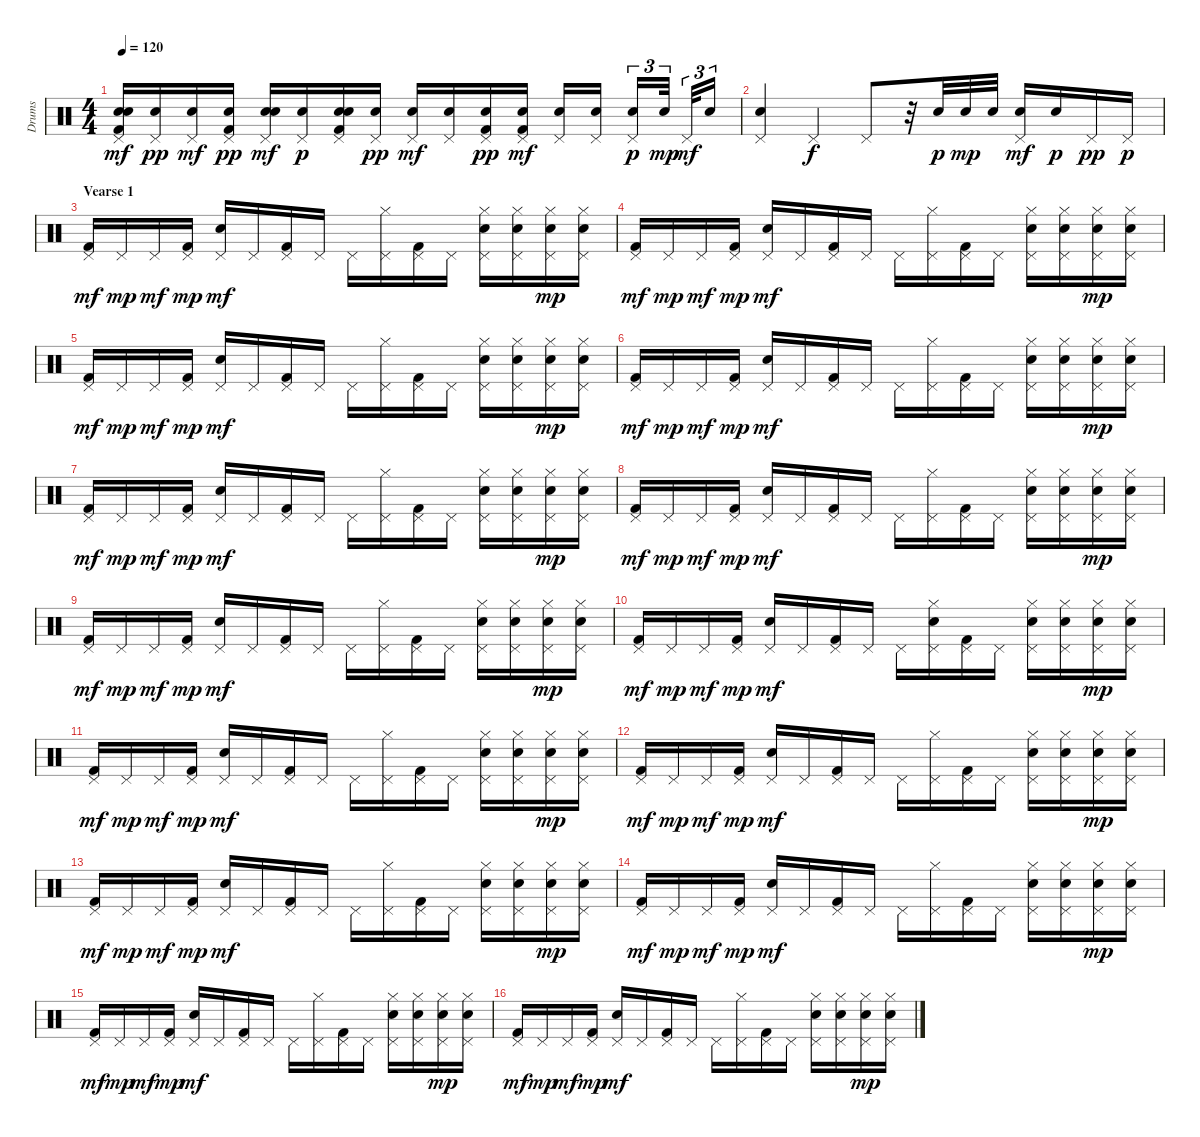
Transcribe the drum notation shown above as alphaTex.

\track ("Drums" "Drums") {instrument percussion}
\staff {score}
\articulation defaults
\ts (4 4)
\tempo 120
\clef neutral
\ks c
("Electric Snare (hit)" "Pedal Hi-Hat (hit)" "Kick (hit) 2" "Electric Snare (hit)").16{dy mf} ("Pedal Hi-Hat (hit)" "Electric Snare (hit)").16{dy pp} ("Electric Snare (hit)" "Pedal Hi-Hat (hit)").16{dy mf} ("Pedal Hi-Hat (hit)" "Kick (hit) 2" "Electric Snare (hit)").16{dy pp} ("Pedal Hi-Hat (hit)" "Electric Snare (hit)" "Electric Snare (hit)").16{dy mf} ("Pedal Hi-Hat (hit)" "Electric Snare (hit)").16{dy p} ("Electric Snare (hit)" "Pedal Hi-Hat (hit)" "Kick (hit) 2" "Electric Snare (hit)").16 ("Pedal Hi-Hat (hit)" "Electric Snare (hit)").16{dy pp} ("Electric Snare (hit)" "Pedal Hi-Hat (hit)").16{dy mf} ("Electric Snare (hit)" "Pedal Hi-Hat (hit)").16 ("Pedal Hi-Hat (hit)" "Electric Snare (hit)" "Kick (hit) 2").16{dy pp} ("Electric Snare (hit)" "Kick (hit) 2" "Pedal Hi-Hat (hit)").16{dy mf} ("Electric Snare (hit)" "Pedal Hi-Hat (hit)").16 ("Electric Snare (hit)" "Pedal Hi-Hat (hit)").16 ("Pedal Hi-Hat (hit)" "Electric Snare (hit)").16{tu (3 2) dy p} "Electric Snare (hit)".32{tu (3 2) dy mp} "Pedal Hi-Hat (hit)".32{tu (3 2) dy mf} "Electric Snare (hit)".16{tu (3 2)} |
("Electric Snare (hit)" "Pedal Hi-Hat (hit)").4 "Pedal Hi-Hat (hit)".4{dy f} "Pedal Hi-Hat (hit)".8 r.32 "Electric Snare (hit)".32{dy p} "Electric Snare (hit)".32{dy mp} "Electric Snare (hit)".32 ("Electric Snare (hit)" "Pedal Hi-Hat (hit)").16{dy mf} "Electric Snare (hit)".16{dy p} "Pedal Hi-Hat (hit)".16{dy pp} "Pedal Hi-Hat (hit)".16{dy p} |
\section ("" "Vearse 1")
("Pedal Hi-Hat (hit)" "Kick (hit) 2").16{dy mf} "Pedal Hi-Hat (hit)".16{dy mp} "Pedal Hi-Hat (hit)".16{dy mf} ("Pedal Hi-Hat (hit)" "Kick (hit) 2").16{dy mp} ("Pedal Hi-Hat (hit)" "Electric Snare (hit)").16{dy mf} "Pedal Hi-Hat (hit)".16 ("Pedal Hi-Hat (hit)" "Kick (hit) 2").16 "Pedal Hi-Hat (hit)".16 "Pedal Hi-Hat (hit)".16 ("Pedal Hi-Hat (hit)" "Hi-Hat (closed)").16 ("Pedal Hi-Hat (hit)" "Kick (hit) 2").16 "Pedal Hi-Hat (hit)".16 ("Pedal Hi-Hat (hit)" "Electric Snare (hit)" "Hi-Hat (closed)").16 ("Pedal Hi-Hat (hit)" "Electric Snare (hit)" "Hi-Hat (closed)").16 ("Pedal Hi-Hat (hit)" "Electric Snare (hit)" "Hi-Hat (closed)").16{dy mp} ("Pedal Hi-Hat (hit)" "Electric Snare (hit)" "Hi-Hat (closed)").16 |
("Pedal Hi-Hat (hit)" "Kick (hit) 2").16{dy mf} "Pedal Hi-Hat (hit)".16{dy mp} "Pedal Hi-Hat (hit)".16{dy mf} ("Pedal Hi-Hat (hit)" "Kick (hit) 2").16{dy mp} ("Pedal Hi-Hat (hit)" "Electric Snare (hit)").16{dy mf} "Pedal Hi-Hat (hit)".16 ("Pedal Hi-Hat (hit)" "Kick (hit) 2").16 "Pedal Hi-Hat (hit)".16 "Pedal Hi-Hat (hit)".16 ("Pedal Hi-Hat (hit)" "Hi-Hat (closed)").16 ("Pedal Hi-Hat (hit)" "Kick (hit) 2").16 "Pedal Hi-Hat (hit)".16 ("Pedal Hi-Hat (hit)" "Electric Snare (hit)" "Hi-Hat (closed)").16 ("Pedal Hi-Hat (hit)" "Electric Snare (hit)" "Hi-Hat (closed)").16 ("Pedal Hi-Hat (hit)" "Electric Snare (hit)" "Hi-Hat (closed)").16{dy mp} ("Pedal Hi-Hat (hit)" "Electric Snare (hit)" "Hi-Hat (closed)").16 |
("Pedal Hi-Hat (hit)" "Kick (hit) 2").16{dy mf} "Pedal Hi-Hat (hit)".16{dy mp} "Pedal Hi-Hat (hit)".16{dy mf} ("Pedal Hi-Hat (hit)" "Kick (hit) 2").16{dy mp} ("Pedal Hi-Hat (hit)" "Electric Snare (hit)").16{dy mf} "Pedal Hi-Hat (hit)".16 ("Pedal Hi-Hat (hit)" "Kick (hit) 2").16 "Pedal Hi-Hat (hit)".16 "Pedal Hi-Hat (hit)".16 ("Pedal Hi-Hat (hit)" "Hi-Hat (closed)").16 ("Pedal Hi-Hat (hit)" "Kick (hit) 2").16 "Pedal Hi-Hat (hit)".16 ("Pedal Hi-Hat (hit)" "Electric Snare (hit)" "Hi-Hat (closed)").16 ("Pedal Hi-Hat (hit)" "Electric Snare (hit)" "Hi-Hat (closed)").16 ("Pedal Hi-Hat (hit)" "Electric Snare (hit)" "Hi-Hat (closed)").16{dy mp} ("Pedal Hi-Hat (hit)" "Electric Snare (hit)" "Hi-Hat (closed)").16 |
("Pedal Hi-Hat (hit)" "Kick (hit) 2").16{dy mf} "Pedal Hi-Hat (hit)".16{dy mp} "Pedal Hi-Hat (hit)".16{dy mf} ("Pedal Hi-Hat (hit)" "Kick (hit) 2").16{dy mp} ("Pedal Hi-Hat (hit)" "Electric Snare (hit)").16{dy mf} "Pedal Hi-Hat (hit)".16 ("Pedal Hi-Hat (hit)" "Kick (hit) 2").16 "Pedal Hi-Hat (hit)".16 "Pedal Hi-Hat (hit)".16 ("Pedal Hi-Hat (hit)" "Hi-Hat (closed)").16 ("Pedal Hi-Hat (hit)" "Kick (hit) 2").16 "Pedal Hi-Hat (hit)".16 ("Pedal Hi-Hat (hit)" "Electric Snare (hit)" "Hi-Hat (closed)").16 ("Pedal Hi-Hat (hit)" "Electric Snare (hit)" "Hi-Hat (closed)").16 ("Pedal Hi-Hat (hit)" "Electric Snare (hit)" "Hi-Hat (closed)").16{dy mp} ("Pedal Hi-Hat (hit)" "Electric Snare (hit)" "Hi-Hat (closed)").16 |
("Pedal Hi-Hat (hit)" "Kick (hit) 2").16{dy mf} "Pedal Hi-Hat (hit)".16{dy mp} "Pedal Hi-Hat (hit)".16{dy mf} ("Pedal Hi-Hat (hit)" "Kick (hit) 2").16{dy mp} ("Pedal Hi-Hat (hit)" "Electric Snare (hit)").16{dy mf} "Pedal Hi-Hat (hit)".16 ("Pedal Hi-Hat (hit)" "Kick (hit) 2").16 "Pedal Hi-Hat (hit)".16 "Pedal Hi-Hat (hit)".16 ("Pedal Hi-Hat (hit)" "Hi-Hat (closed)").16 ("Pedal Hi-Hat (hit)" "Kick (hit) 2").16 "Pedal Hi-Hat (hit)".16 ("Pedal Hi-Hat (hit)" "Electric Snare (hit)" "Hi-Hat (closed)").16 ("Pedal Hi-Hat (hit)" "Electric Snare (hit)" "Hi-Hat (closed)").16 ("Pedal Hi-Hat (hit)" "Electric Snare (hit)" "Hi-Hat (closed)").16{dy mp} ("Pedal Hi-Hat (hit)" "Electric Snare (hit)" "Hi-Hat (closed)").16 |
("Pedal Hi-Hat (hit)" "Kick (hit) 2").16{dy mf} "Pedal Hi-Hat (hit)".16{dy mp} "Pedal Hi-Hat (hit)".16{dy mf} ("Pedal Hi-Hat (hit)" "Kick (hit) 2").16{dy mp} ("Pedal Hi-Hat (hit)" "Electric Snare (hit)").16{dy mf} "Pedal Hi-Hat (hit)".16 ("Pedal Hi-Hat (hit)" "Kick (hit) 2").16 "Pedal Hi-Hat (hit)".16 "Pedal Hi-Hat (hit)".16 ("Pedal Hi-Hat (hit)" "Hi-Hat (closed)").16 ("Pedal Hi-Hat (hit)" "Kick (hit) 2").16 "Pedal Hi-Hat (hit)".16 ("Pedal Hi-Hat (hit)" "Electric Snare (hit)" "Hi-Hat (closed)").16 ("Pedal Hi-Hat (hit)" "Electric Snare (hit)" "Hi-Hat (closed)").16 ("Pedal Hi-Hat (hit)" "Electric Snare (hit)" "Hi-Hat (closed)").16{dy mp} ("Pedal Hi-Hat (hit)" "Electric Snare (hit)" "Hi-Hat (closed)").16 |
("Pedal Hi-Hat (hit)" "Kick (hit) 2").16{dy mf} "Pedal Hi-Hat (hit)".16{dy mp} "Pedal Hi-Hat (hit)".16{dy mf} ("Pedal Hi-Hat (hit)" "Kick (hit) 2").16{dy mp} ("Pedal Hi-Hat (hit)" "Electric Snare (hit)").16{dy mf} "Pedal Hi-Hat (hit)".16 ("Pedal Hi-Hat (hit)" "Kick (hit) 2").16 "Pedal Hi-Hat (hit)".16 "Pedal Hi-Hat (hit)".16 ("Pedal Hi-Hat (hit)" "Hi-Hat (closed)").16 ("Pedal Hi-Hat (hit)" "Kick (hit) 2").16 "Pedal Hi-Hat (hit)".16 ("Pedal Hi-Hat (hit)" "Electric Snare (hit)" "Hi-Hat (closed)").16 ("Pedal Hi-Hat (hit)" "Electric Snare (hit)" "Hi-Hat (closed)").16 ("Pedal Hi-Hat (hit)" "Electric Snare (hit)" "Hi-Hat (closed)").16{dy mp} ("Pedal Hi-Hat (hit)" "Electric Snare (hit)" "Hi-Hat (closed)").16 |
("Pedal Hi-Hat (hit)" "Kick (hit) 2").16{dy mf} "Pedal Hi-Hat (hit)".16{dy mp} "Pedal Hi-Hat (hit)".16{dy mf} ("Pedal Hi-Hat (hit)" "Kick (hit) 2").16{dy mp} ("Pedal Hi-Hat (hit)" "Electric Snare (hit)").16{dy mf} "Pedal Hi-Hat (hit)".16 ("Pedal Hi-Hat (hit)" "Kick (hit) 2").16 "Pedal Hi-Hat (hit)".16 "Pedal Hi-Hat (hit)".16 ("Pedal Hi-Hat (hit)" "Hi-Hat (closed)" "Electric Snare (hit)").16 ("Pedal Hi-Hat (hit)" "Kick (hit) 2").16 "Pedal Hi-Hat (hit)".16 ("Pedal Hi-Hat (hit)" "Electric Snare (hit)" "Hi-Hat (closed)").16 ("Pedal Hi-Hat (hit)" "Electric Snare (hit)" "Hi-Hat (closed)").16 ("Pedal Hi-Hat (hit)" "Electric Snare (hit)" "Hi-Hat (closed)").16{dy mp} ("Pedal Hi-Hat (hit)" "Electric Snare (hit)" "Hi-Hat (closed)").16 |
("Pedal Hi-Hat (hit)" "Kick (hit) 2").16{dy mf} "Pedal Hi-Hat (hit)".16{dy mp} "Pedal Hi-Hat (hit)".16{dy mf} ("Pedal Hi-Hat (hit)" "Kick (hit) 2").16{dy mp} ("Pedal Hi-Hat (hit)" "Electric Snare (hit)").16{dy mf} "Pedal Hi-Hat (hit)".16 ("Pedal Hi-Hat (hit)" "Kick (hit) 2").16 "Pedal Hi-Hat (hit)".16 "Pedal Hi-Hat (hit)".16 ("Pedal Hi-Hat (hit)" "Hi-Hat (closed)").16 ("Pedal Hi-Hat (hit)" "Kick (hit) 2").16 "Pedal Hi-Hat (hit)".16 ("Pedal Hi-Hat (hit)" "Electric Snare (hit)" "Hi-Hat (closed)").16 ("Pedal Hi-Hat (hit)" "Electric Snare (hit)" "Hi-Hat (closed)").16 ("Pedal Hi-Hat (hit)" "Electric Snare (hit)" "Hi-Hat (closed)").16{dy mp} ("Pedal Hi-Hat (hit)" "Electric Snare (hit)" "Hi-Hat (closed)").16 |
("Pedal Hi-Hat (hit)" "Kick (hit) 2").16{dy mf} "Pedal Hi-Hat (hit)".16{dy mp} "Pedal Hi-Hat (hit)".16{dy mf} ("Pedal Hi-Hat (hit)" "Kick (hit) 2").16{dy mp} ("Pedal Hi-Hat (hit)" "Electric Snare (hit)").16{dy mf} "Pedal Hi-Hat (hit)".16 ("Pedal Hi-Hat (hit)" "Kick (hit) 2").16 "Pedal Hi-Hat (hit)".16 "Pedal Hi-Hat (hit)".16 ("Pedal Hi-Hat (hit)" "Hi-Hat (closed)").16 ("Pedal Hi-Hat (hit)" "Kick (hit) 2").16 "Pedal Hi-Hat (hit)".16 ("Pedal Hi-Hat (hit)" "Electric Snare (hit)" "Hi-Hat (closed)").16 ("Pedal Hi-Hat (hit)" "Electric Snare (hit)" "Hi-Hat (closed)").16 ("Pedal Hi-Hat (hit)" "Electric Snare (hit)" "Hi-Hat (closed)").16{dy mp} ("Pedal Hi-Hat (hit)" "Electric Snare (hit)" "Hi-Hat (closed)").16 |
("Pedal Hi-Hat (hit)" "Kick (hit) 2").16{dy mf} "Pedal Hi-Hat (hit)".16{dy mp} "Pedal Hi-Hat (hit)".16{dy mf} ("Pedal Hi-Hat (hit)" "Kick (hit) 2").16{dy mp} ("Pedal Hi-Hat (hit)" "Electric Snare (hit)").16{dy mf} "Pedal Hi-Hat (hit)".16 ("Pedal Hi-Hat (hit)" "Kick (hit) 2").16 "Pedal Hi-Hat (hit)".16 "Pedal Hi-Hat (hit)".16 ("Pedal Hi-Hat (hit)" "Hi-Hat (closed)").16 ("Pedal Hi-Hat (hit)" "Kick (hit) 2").16 "Pedal Hi-Hat (hit)".16 ("Pedal Hi-Hat (hit)" "Electric Snare (hit)" "Hi-Hat (closed)").16 ("Pedal Hi-Hat (hit)" "Electric Snare (hit)" "Hi-Hat (closed)").16 ("Pedal Hi-Hat (hit)" "Electric Snare (hit)" "Hi-Hat (closed)").16{dy mp} ("Pedal Hi-Hat (hit)" "Electric Snare (hit)" "Hi-Hat (closed)").16 |
("Pedal Hi-Hat (hit)" "Kick (hit) 2").16{dy mf} "Pedal Hi-Hat (hit)".16{dy mp} "Pedal Hi-Hat (hit)".16{dy mf} ("Pedal Hi-Hat (hit)" "Kick (hit) 2").16{dy mp} ("Pedal Hi-Hat (hit)" "Electric Snare (hit)").16{dy mf} "Pedal Hi-Hat (hit)".16 ("Pedal Hi-Hat (hit)" "Kick (hit) 2").16 "Pedal Hi-Hat (hit)".16 "Pedal Hi-Hat (hit)".16 ("Pedal Hi-Hat (hit)" "Hi-Hat (closed)").16 ("Pedal Hi-Hat (hit)" "Kick (hit) 2").16 "Pedal Hi-Hat (hit)".16 ("Pedal Hi-Hat (hit)" "Electric Snare (hit)" "Hi-Hat (closed)").16 ("Pedal Hi-Hat (hit)" "Electric Snare (hit)" "Hi-Hat (closed)").16 ("Pedal Hi-Hat (hit)" "Electric Snare (hit)" "Hi-Hat (closed)").16{dy mp} ("Pedal Hi-Hat (hit)" "Electric Snare (hit)" "Hi-Hat (closed)").16 |
("Pedal Hi-Hat (hit)" "Kick (hit) 2").16{dy mf} "Pedal Hi-Hat (hit)".16{dy mp} "Pedal Hi-Hat (hit)".16{dy mf} ("Pedal Hi-Hat (hit)" "Kick (hit) 2").16{dy mp} ("Pedal Hi-Hat (hit)" "Electric Snare (hit)").16{dy mf} "Pedal Hi-Hat (hit)".16 ("Pedal Hi-Hat (hit)" "Kick (hit) 2").16 "Pedal Hi-Hat (hit)".16 "Pedal Hi-Hat (hit)".16 ("Pedal Hi-Hat (hit)" "Hi-Hat (closed)").16 ("Pedal Hi-Hat (hit)" "Kick (hit) 2").16 "Pedal Hi-Hat (hit)".16 ("Pedal Hi-Hat (hit)" "Electric Snare (hit)" "Hi-Hat (closed)").16 ("Pedal Hi-Hat (hit)" "Electric Snare (hit)" "Hi-Hat (closed)").16 ("Pedal Hi-Hat (hit)" "Electric Snare (hit)" "Hi-Hat (closed)").16{dy mp} ("Pedal Hi-Hat (hit)" "Electric Snare (hit)" "Hi-Hat (closed)").16 |
("Pedal Hi-Hat (hit)" "Kick (hit) 2").16{dy mf} "Pedal Hi-Hat (hit)".16{dy mp} "Pedal Hi-Hat (hit)".16{dy mf} ("Pedal Hi-Hat (hit)" "Kick (hit) 2").16{dy mp} ("Pedal Hi-Hat (hit)" "Electric Snare (hit)").16{dy mf} "Pedal Hi-Hat (hit)".16 ("Pedal Hi-Hat (hit)" "Kick (hit) 2").16 "Pedal Hi-Hat (hit)".16 "Pedal Hi-Hat (hit)".16 ("Pedal Hi-Hat (hit)" "Hi-Hat (closed)").16 ("Pedal Hi-Hat (hit)" "Kick (hit) 2").16 "Pedal Hi-Hat (hit)".16 ("Pedal Hi-Hat (hit)" "Electric Snare (hit)" "Hi-Hat (closed)").16 ("Pedal Hi-Hat (hit)" "Electric Snare (hit)" "Hi-Hat (closed)").16 ("Pedal Hi-Hat (hit)" "Electric Snare (hit)" "Hi-Hat (closed)").16{dy mp} ("Pedal Hi-Hat (hit)" "Electric Snare (hit)" "Hi-Hat (closed)").16
